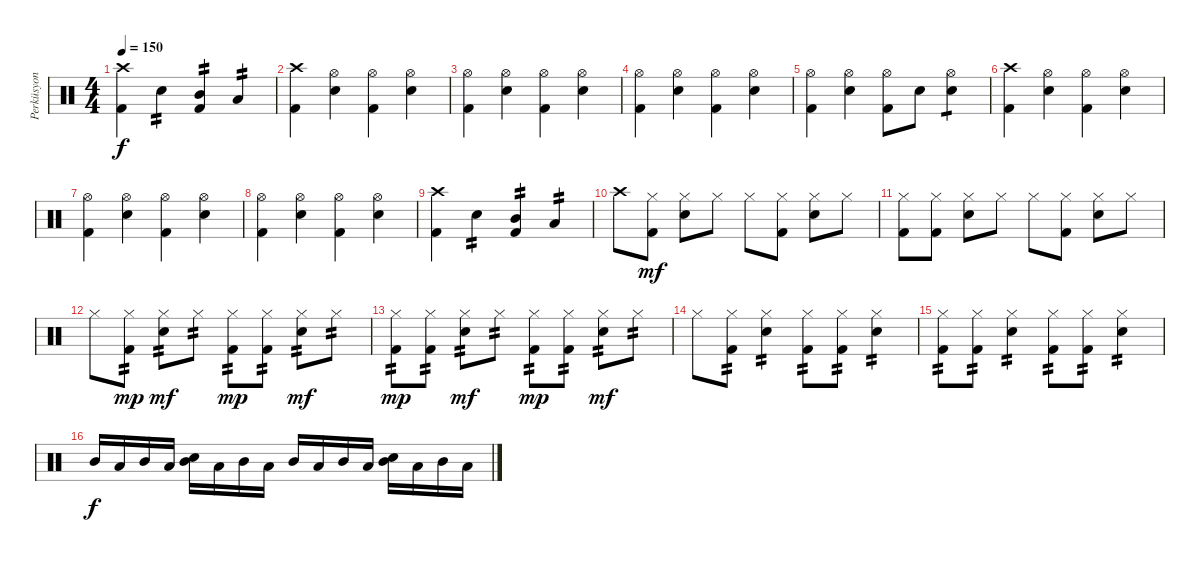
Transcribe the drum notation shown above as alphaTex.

\track ("Perküsyon" "Perküsyon") {instrument percussion}
\staff {score}
\articulation defaults
\ts (4 4)
\tempo 150
\clef neutral
\ks c
("Crash high (hit)" "Kick (hit) 2").4{dy f} "Snare (hit) 2".4{tp 2} ("Mid Tom (hit)" "Kick (hit) 2").4{tp 2} "Low Tom (hit)".4{tp 2} |
("Crash high (hit)" "Kick (hit) 2").4 ("Hi-Hat (open)" "Snare (hit) 2").4 ("Hi-Hat (open)" "Kick (hit) 2").4 ("Hi-Hat (open)" "Snare (hit) 2").4 |
("Hi-Hat (open)" "Kick (hit) 2").4 ("Hi-Hat (open)" "Snare (hit) 2").4 ("Hi-Hat (open)" "Kick (hit) 2").4 ("Hi-Hat (open)" "Snare (hit) 2").4 |
("Hi-Hat (open)" "Kick (hit) 2").4 ("Hi-Hat (open)" "Snare (hit) 2").4 ("Hi-Hat (open)" "Kick (hit) 2").4 ("Hi-Hat (open)" "Snare (hit) 2").4 |
("Hi-Hat (open)" "Kick (hit) 2").4 ("Hi-Hat (open)" "Snare (hit) 2").4 ("Hi-Hat (open)" "Kick (hit) 2").8 "Snare (hit) 2".8 ("Hi-Hat (open)" "Snare (hit) 2").4{tp 1} |
("Crash high (hit)" "Kick (hit) 2").4 ("Hi-Hat (open)" "Snare (hit) 2").4 ("Hi-Hat (open)" "Kick (hit) 2").4 ("Hi-Hat (open)" "Snare (hit) 2").4 |
("Hi-Hat (open)" "Kick (hit) 2").4 ("Hi-Hat (open)" "Snare (hit) 2").4 ("Hi-Hat (open)" "Kick (hit) 2").4 ("Hi-Hat (open)" "Snare (hit) 2").4 |
("Hi-Hat (open)" "Kick (hit) 2").4 ("Hi-Hat (open)" "Snare (hit) 2").4 ("Hi-Hat (open)" "Kick (hit) 2").4 ("Hi-Hat (open)" "Snare (hit) 2").4 |
("Crash high (hit)" "Kick (hit) 2").4 "Snare (hit) 2".4{tp 2} ("Mid Tom (hit)" "Kick (hit) 2").4{tp 2} "Low Tom (hit)".4{tp 2} |
"Crash high (hit)".8 ("Hi-Hat (closed)" "Kick (hit) 2").8{dy mf} ("Hi-Hat (closed)" "Snare (hit) 2").8 "Hi-Hat (closed)".8 "Hi-Hat (closed)".8 ("Hi-Hat (closed)" "Kick (hit) 2").8 ("Hi-Hat (closed)" "Snare (hit) 2").8 "Hi-Hat (closed)".8 |
("Hi-Hat (closed)" "Kick (hit) 2").8 ("Hi-Hat (closed)" "Kick (hit) 2").8 ("Hi-Hat (closed)" "Snare (hit) 2").8 "Hi-Hat (closed)".8 "Hi-Hat (closed)".8 ("Hi-Hat (closed)" "Kick (hit) 2").8 ("Hi-Hat (closed)" "Snare (hit) 2").8 "Hi-Hat (closed)".8 |
"Hi-Hat (closed)".8 ("Hi-Hat (closed)" "Kick (hit) 2").8{tp 2 dy mp} ("Hi-Hat (closed)" "Snare (hit) 2").8{tp 2 dy mf} "Hi-Hat (closed)".8{tp 2} ("Hi-Hat (closed)" "Kick (hit) 2").8{tp 2 dy mp} ("Hi-Hat (closed)" "Kick (hit) 2").8{tp 2} ("Hi-Hat (closed)" "Snare (hit) 2").8{tp 2 dy mf} "Hi-Hat (closed)".8{tp 2} |
("Hi-Hat (closed)" "Kick (hit) 2").8{tp 2 dy mp} ("Hi-Hat (closed)" "Kick (hit) 2").8{tp 2} ("Hi-Hat (closed)" "Snare (hit) 2").8{tp 2 dy mf} "Hi-Hat (closed)".8{tp 2} ("Hi-Hat (closed)" "Kick (hit) 2").8{tp 2 dy mp} ("Hi-Hat (closed)" "Kick (hit) 2").8{tp 2} ("Hi-Hat (closed)" "Snare (hit) 2").8{tp 2 dy mf} "Hi-Hat (closed)".8{tp 2} |
"Hi-Hat (closed)".8 ("Hi-Hat (closed)" "Kick (hit) 2").8{tp 2} ("Hi-Hat (closed)" "Snare (hit) 2").4{tp 2} ("Hi-Hat (closed)" "Kick (hit) 2").8{tp 2} ("Hi-Hat (closed)" "Kick (hit) 2").8{tp 2} ("Hi-Hat (closed)" "Snare (hit) 2").4{tp 2} |
("Hi-Hat (closed)" "Kick (hit) 2").8{tp 2} ("Hi-Hat (closed)" "Kick (hit) 2").8{tp 2} ("Hi-Hat (closed)" "Snare (hit) 2").4{tp 2} ("Hi-Hat (closed)" "Kick (hit) 2").8{tp 2} ("Hi-Hat (closed)" "Kick (hit) 2").8{tp 2} ("Hi-Hat (closed)" "Snare (hit) 2").4{tp 2} |
"Mid Tom (hit)".16{dy f} "Low Tom (hit)".16 "Mid Tom (hit)".16 "Low Tom (hit)".16 ("Mid Tom (hit)" "Snare (hit) 2").16 "Low Tom (hit)".16 "Mid Tom (hit)".16 "Low Tom (hit)".16 "Mid Tom (hit)".16 "Low Tom (hit)".16 "Mid Tom (hit)".16 "Low Tom (hit)".16 ("Mid Tom (hit)" "Snare (hit) 2").16 "Low Tom (hit)".16 "Mid Tom (hit)".16 "Low Tom (hit)".16
